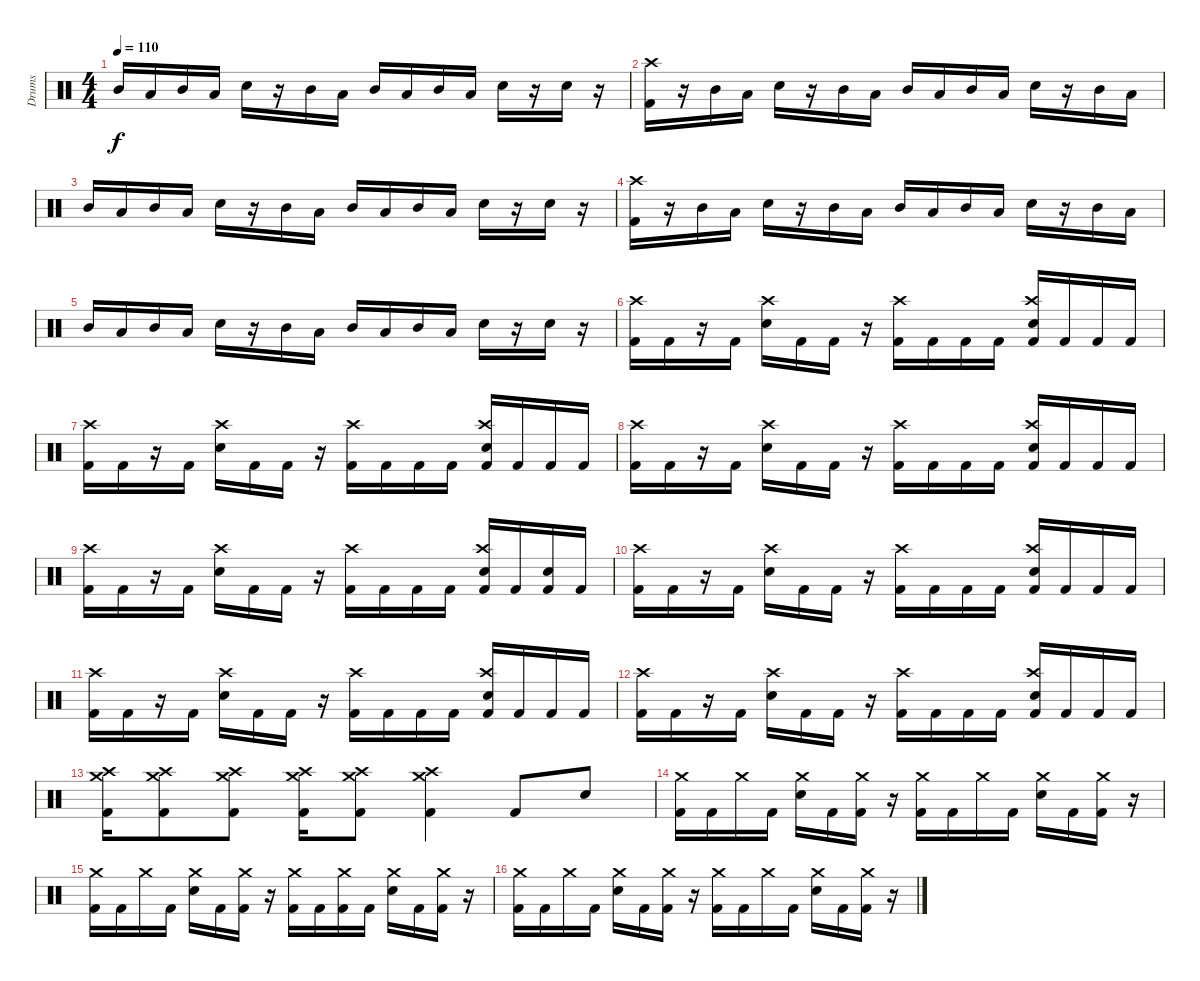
\track ("Drums" "Drums") {instrument percussion}
\staff {score}
\articulation defaults
\ts (4 4)
\tempo 110
\clef neutral
\ks c "Mid Tom (hit)".16{dy f} "Low Tom (hit)".16 "Mid Tom (hit)".16 "Low Tom (hit)".16 "Electric Snare (hit)".16
r.16 "Mid Tom (hit)".16 "Low Tom (hit)".16 "Mid Tom (hit)".16 "Low Tom (hit)".16 "Mid Tom (hit)".16 "Low Tom (hit)".16 "Electric Snare (hit)".16 r.16 "Electric Snare (hit)".16 r.16 |
("Crash high (hit)" "Kick (hit) 2").16 r.16 "Mid Tom (hit)".16 "Low Tom (hit)".16 "Electric Snare (hit)".16 r.16 "Mid Tom (hit)".16 "Low Tom (hit)".16 "Mid Tom (hit)".16 "Low Tom (hit)".16 "Mid Tom (hit)".16 "Low Tom (hit)".16 "Electric Snare (hit)".16 r.16 "Mid Tom (hit)".16 "Low Tom (hit)".16 |
"Mid Tom (hit)".16 "Low Tom (hit)".16 "Mid Tom (hit)".16 "Low Tom (hit)".16 "Electric Snare (hit)".16 r.16 "Mid Tom (hit)".16 "Low Tom (hit)".16 "Mid Tom (hit)".16 "Low Tom (hit)".16 "Mid Tom (hit)".16 "Low Tom (hit)".16 "Electric Snare (hit)".16 r.16 "Electric Snare (hit)".16 r.16 |
("Crash high (hit)" "Kick (hit) 2").16 r.16 "Mid Tom (hit)".16 "Low Tom (hit)".16 "Electric Snare (hit)".16 r.16 "Mid Tom (hit)".16 "Low Tom (hit)".16 "Mid Tom (hit)".16 "Low Tom (hit)".16 "Mid Tom (hit)".16 "Low Tom (hit)".16 "Electric Snare (hit)".16 r.16 "Mid Tom (hit)".16 "Low Tom (hit)".16 |
"Mid Tom (hit)".16 "Low Tom (hit)".16 "Mid Tom (hit)".16 "Low Tom (hit)".16 "Electric Snare (hit)".16 r.16 "Mid Tom (hit)".16 "Low Tom (hit)".16 "Mid Tom (hit)".16 "Low Tom (hit)".16 "Mid Tom (hit)".16 "Low Tom (hit)".16 "Electric Snare (hit)".16 r.16 "Electric Snare (hit)".16 r.16 |
("Crash high (hit)" "Kick (hit) 2").16 "Kick (hit) 2".16 r.16 "Kick (hit) 2".16 ("Crash high (hit)" "Electric Snare (hit)").16 "Kick (hit) 2".16 "Kick (hit) 2".16 r.16 ("Crash high (hit)" "Kick (hit) 2").16 "Kick (hit) 2".16 "Kick (hit) 2".16 "Kick (hit) 2".16 ("Crash high (hit)" "Electric Snare (hit)" "Kick (hit) 2").16 "Kick (hit) 2".16 "Kick (hit) 2".16 "Kick (hit) 2".16 |
("Crash high (hit)" "Kick (hit) 2").16 "Kick (hit) 2".16 r.16 "Kick (hit) 2".16 ("Crash high (hit)" "Electric Snare (hit)").16 "Kick (hit) 2".16 "Kick (hit) 2".16 r.16 ("Crash high (hit)" "Kick (hit) 2").16 "Kick (hit) 2".16 "Kick (hit) 2".16 "Kick (hit) 2".16 ("Crash high (hit)" "Electric Snare (hit)" "Kick (hit) 2").16 "Kick (hit) 2".16 "Kick (hit) 2".16 "Kick (hit) 2".16 |
("Crash high (hit)" "Kick (hit) 2").16 "Kick (hit) 2".16 r.16 "Kick (hit) 2".16 ("Crash high (hit)" "Electric Snare (hit)").16 "Kick (hit) 2".16 "Kick (hit) 2".16 r.16 ("Crash high (hit)" "Kick (hit) 2").16 "Kick (hit) 2".16 "Kick (hit) 2".16 "Kick (hit) 2".16 ("Crash high (hit)" "Electric Snare (hit)" "Kick (hit) 2").16 "Kick (hit) 2".16 "Kick (hit) 2".16 "Kick (hit) 2".16 |
("Crash high (hit)" "Kick (hit) 2").16 "Kick (hit) 2".16 r.16 "Kick (hit) 2".16 ("Crash high (hit)" "Electric Snare (hit)").16 "Kick (hit) 2".16 "Kick (hit) 2".16 r.16 ("Crash high (hit)" "Kick (hit) 2").16 "Kick (hit) 2".16 "Kick (hit) 2".16 "Kick (hit) 2".16 ("Crash high (hit)" "Electric Snare (hit)" "Kick (hit) 2").16 "Kick (hit) 2".16 ("Electric Snare (hit)" "Kick (hit) 2").16 "Kick (hit) 2".16 |
("Crash high (hit)" "Kick (hit) 2").16 "Kick (hit) 2".16 r.16 "Kick (hit) 2".16 ("Crash high (hit)" "Electric Snare (hit)").16 "Kick (hit) 2".16 "Kick (hit) 2".16 r.16 ("Crash high (hit)" "Kick (hit) 2").16 "Kick (hit) 2".16 "Kick (hit) 2".16 "Kick (hit) 2".16 ("Crash high (hit)" "Electric Snare (hit)" "Kick (hit) 2").16 "Kick (hit) 2".16 "Kick (hit) 2".16 "Kick (hit) 2".16 |
("Crash high (hit)" "Kick (hit) 2").16 "Kick (hit) 2".16 r.16 "Kick (hit) 2".16 ("Crash high (hit)" "Electric Snare (hit)").16 "Kick (hit) 2".16 "Kick (hit) 2".16 r.16 ("Crash high (hit)" "Kick (hit) 2").16 "Kick (hit) 2".16 "Kick (hit) 2".16 "Kick (hit) 2".16 ("Crash high (hit)" "Electric Snare (hit)" "Kick (hit) 2").16 "Kick (hit) 2".16 "Kick (hit) 2".16 "Kick (hit) 2".16 |
("Crash high (hit)" "Kick (hit) 2").16 "Kick (hit) 2".16 r.16 "Kick (hit) 2".16 ("Crash high (hit)" "Electric Snare (hit)").16 "Kick (hit) 2".16 "Kick (hit) 2".16 r.16 ("Crash high (hit)" "Kick (hit) 2").16 "Kick (hit) 2".16 "Kick (hit) 2".16 "Kick (hit) 2".16 ("Crash high (hit)" "Electric Snare (hit)" "Kick (hit) 2").16 "Kick (hit) 2".16 "Kick (hit) 2".16 "Kick (hit) 2".16 |
("Crash high (hit)" "Crash medium (hit)" "Kick (hit) 2").16 ("Crash high (hit)" "Crash medium (hit)" "Kick (hit) 2").8 ("Crash high (hit)" "Crash medium (hit)" "Kick (hit) 2").8 ("Crash high (hit)" "Crash medium (hit)" "Kick (hit) 2").16 ("Crash high (hit)" "Crash medium (hit)" "Kick (hit) 2").8 ("Crash high (hit)" "Crash medium (hit)" "Kick (hit) 2").4 "Kick (hit) 2".8 "Electric Snare (hit)".8 |
("Crash medium (hit)" "Kick (hit) 2").16 "Kick (hit) 2".16 "Crash medium (hit)".16 "Kick (hit) 2".16 ("Crash medium (hit)" "Snare (hit) 2").16 "Kick (hit) 2".16 ("Crash medium (hit)" "Kick (hit) 2").16 r.16 ("Crash medium (hit)" "Kick (hit) 2").16 "Kick (hit) 2".16 "Crash medium (hit)".16 "Kick (hit) 2".16 ("Crash medium (hit)" "Snare (hit) 2").16 "Kick (hit) 2".16 ("Crash medium (hit)" "Kick (hit) 2").16 r.16 |
("Crash medium (hit)" "Kick (hit) 2").16 "Kick (hit) 2".16 "Crash medium (hit)".16 "Kick (hit) 2".16 ("Crash medium (hit)" "Snare (hit) 2").16 "Kick (hit) 2".16 ("Crash medium (hit)" "Kick (hit) 2").16 r.16 ("Crash medium (hit)" "Kick (hit) 2").16 "Kick (hit) 2".16 ("Crash medium (hit)" "Kick (hit) 2").16 "Kick (hit) 2".16 ("Crash medium (hit)" "Snare (hit) 2").16 "Kick (hit) 2".16 ("Crash medium (hit)" "Kick (hit) 2").16 r.16 |
("Crash medium (hit)" "Kick (hit) 2").16 "Kick (hit) 2".16 "Crash medium (hit)".16 "Kick (hit) 2".16 ("Crash medium (hit)" "Snare (hit) 2").16 "Kick (hit) 2".16 ("Crash medium (hit)" "Kick (hit) 2").16 r.16 ("Crash medium (hit)" "Kick (hit) 2").16 "Kick (hit) 2".16 "Crash medium (hit)".16 "Kick (hit) 2".16 ("Crash medium (hit)" "Snare (hit) 2").16 "Kick (hit) 2".16 ("Crash medium (hit)" "Kick (hit) 2").16 r.16
